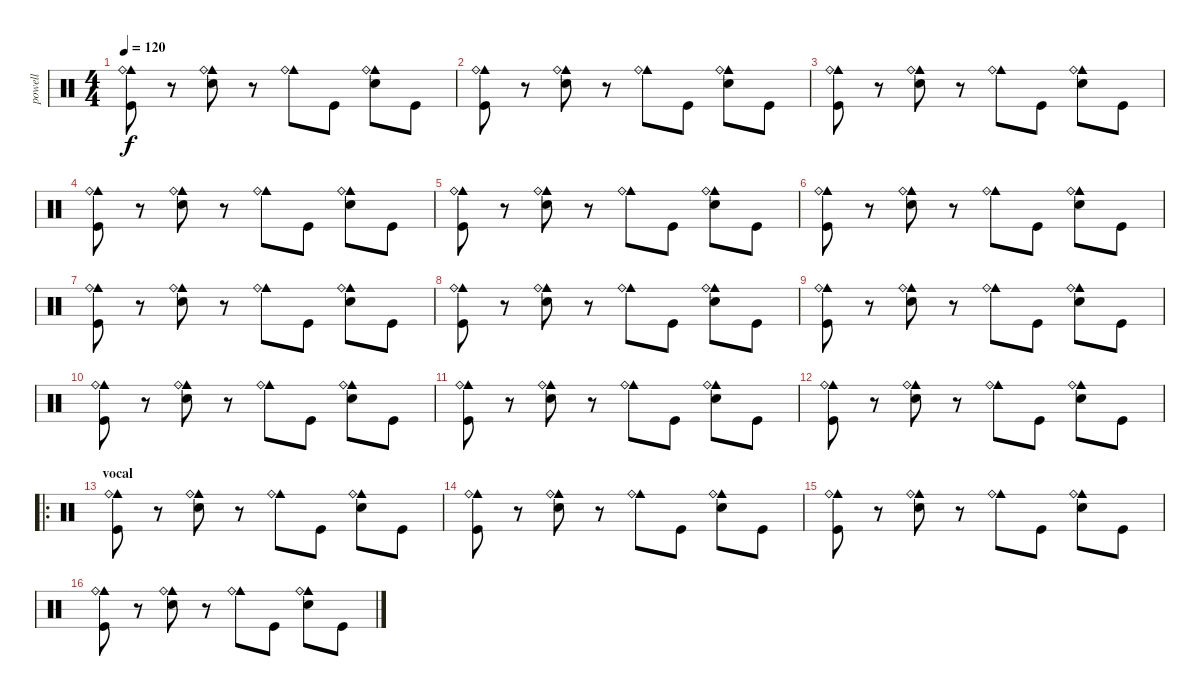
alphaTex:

\track ("powell" "powell") {instrument percussion}
\staff {score}
\articulation defaults
\ts (4 4)
\tempo 120
\clef neutral
\ks c
("Cowbell medium (hit)" "Ride (bell)" "Kick (hit)").8{dy f} r.8 ("Cowbell medium (hit)" "Ride (bell)" "Snare (hit) 2").8{volume 11} r.8 ("Cowbell medium (hit)" "Ride (bell)").8 "Kick (hit)".8 ("Cowbell medium (hit)" "Ride (bell)" "Snare (hit) 2").8 "Kick (hit)".8 |
("Cowbell medium (hit)" "Ride (bell)" "Kick (hit)").8 r.8 ("Cowbell medium (hit)" "Ride (bell)" "Snare (hit) 2").8{volume 11} r.8 ("Cowbell medium (hit)" "Ride (bell)").8 "Kick (hit)".8 ("Cowbell medium (hit)" "Ride (bell)" "Snare (hit) 2").8 "Kick (hit)".8 |
("Cowbell medium (hit)" "Ride (bell)" "Kick (hit)").8 r.8 ("Cowbell medium (hit)" "Ride (bell)" "Snare (hit) 2").8{volume 11} r.8 ("Cowbell medium (hit)" "Ride (bell)").8 "Kick (hit)".8 ("Cowbell medium (hit)" "Ride (bell)" "Snare (hit) 2").8 "Kick (hit)".8 |
("Cowbell medium (hit)" "Ride (bell)" "Kick (hit)").8 r.8 ("Cowbell medium (hit)" "Ride (bell)" "Snare (hit) 2").8{volume 11} r.8 ("Cowbell medium (hit)" "Ride (bell)").8 "Kick (hit)".8 ("Cowbell medium (hit)" "Ride (bell)" "Snare (hit) 2").8 "Kick (hit)".8 |
("Cowbell medium (hit)" "Ride (bell)" "Kick (hit)").8 r.8 ("Cowbell medium (hit)" "Ride (bell)" "Snare (hit) 2").8{volume 11} r.8 ("Cowbell medium (hit)" "Ride (bell)").8 "Kick (hit)".8 ("Cowbell medium (hit)" "Ride (bell)" "Snare (hit) 2").8 "Kick (hit)".8 |
("Cowbell medium (hit)" "Ride (bell)" "Kick (hit)").8 r.8 ("Cowbell medium (hit)" "Ride (bell)" "Snare (hit) 2").8{volume 11} r.8 ("Cowbell medium (hit)" "Ride (bell)").8 "Kick (hit)".8 ("Cowbell medium (hit)" "Ride (bell)" "Snare (hit) 2").8 "Kick (hit)".8 |
("Cowbell medium (hit)" "Ride (bell)" "Kick (hit)").8 r.8 ("Cowbell medium (hit)" "Ride (bell)" "Snare (hit) 2").8{volume 11} r.8 ("Cowbell medium (hit)" "Ride (bell)").8 "Kick (hit)".8 ("Cowbell medium (hit)" "Ride (bell)" "Snare (hit) 2").8 "Kick (hit)".8 |
("Cowbell medium (hit)" "Ride (bell)" "Kick (hit)").8 r.8 ("Cowbell medium (hit)" "Ride (bell)" "Snare (hit) 2").8{volume 11} r.8 ("Cowbell medium (hit)" "Ride (bell)").8 "Kick (hit)".8 ("Cowbell medium (hit)" "Ride (bell)" "Snare (hit) 2").8 "Kick (hit)".8 |
("Cowbell medium (hit)" "Ride (bell)" "Kick (hit)").8 r.8 ("Cowbell medium (hit)" "Ride (bell)" "Snare (hit) 2").8{volume 11} r.8 ("Cowbell medium (hit)" "Ride (bell)").8 "Kick (hit)".8 ("Cowbell medium (hit)" "Ride (bell)" "Snare (hit) 2").8 "Kick (hit)".8 |
("Cowbell medium (hit)" "Ride (bell)" "Kick (hit)").8 r.8 ("Cowbell medium (hit)" "Ride (bell)" "Snare (hit) 2").8{volume 11} r.8 ("Cowbell medium (hit)" "Ride (bell)").8 "Kick (hit)".8 ("Cowbell medium (hit)" "Ride (bell)" "Snare (hit) 2").8 "Kick (hit)".8 |
("Cowbell medium (hit)" "Ride (bell)" "Kick (hit)").8 r.8 ("Cowbell medium (hit)" "Ride (bell)" "Snare (hit) 2").8{volume 11} r.8 ("Cowbell medium (hit)" "Ride (bell)").8 "Kick (hit)".8 ("Cowbell medium (hit)" "Ride (bell)" "Snare (hit) 2").8 "Kick (hit)".8 |
("Cowbell medium (hit)" "Ride (bell)" "Kick (hit)").8 r.8 ("Cowbell medium (hit)" "Ride (bell)" "Snare (hit) 2").8{volume 11} r.8 ("Cowbell medium (hit)" "Ride (bell)").8 "Kick (hit)".8 ("Cowbell medium (hit)" "Ride (bell)" "Snare (hit) 2").8 "Kick (hit)".8 |
\ro
\section ("" "vocal")
("Cowbell medium (hit)" "Ride (bell)" "Kick (hit)").8 r.8 ("Cowbell medium (hit)" "Ride (bell)" "Snare (hit) 2").8{volume 11} r.8 ("Cowbell medium (hit)" "Ride (bell)").8 "Kick (hit)".8 ("Cowbell medium (hit)" "Ride (bell)" "Snare (hit) 2").8 "Kick (hit)".8 |
("Cowbell medium (hit)" "Ride (bell)" "Kick (hit)").8 r.8 ("Cowbell medium (hit)" "Ride (bell)" "Snare (hit) 2").8{volume 11} r.8 ("Cowbell medium (hit)" "Ride (bell)").8 "Kick (hit)".8 ("Cowbell medium (hit)" "Ride (bell)" "Snare (hit) 2").8 "Kick (hit)".8 |
("Cowbell medium (hit)" "Ride (bell)" "Kick (hit)").8 r.8 ("Cowbell medium (hit)" "Ride (bell)" "Snare (hit) 2").8{volume 11} r.8 ("Cowbell medium (hit)" "Ride (bell)").8 "Kick (hit)".8 ("Cowbell medium (hit)" "Ride (bell)" "Snare (hit) 2").8 "Kick (hit)".8 |
("Cowbell medium (hit)" "Ride (bell)" "Kick (hit)").8 r.8 ("Cowbell medium (hit)" "Ride (bell)" "Snare (hit) 2").8{volume 11} r.8 ("Cowbell medium (hit)" "Ride (bell)").8 "Kick (hit)".8 ("Cowbell medium (hit)" "Ride (bell)" "Snare (hit) 2").8 "Kick (hit)".8
